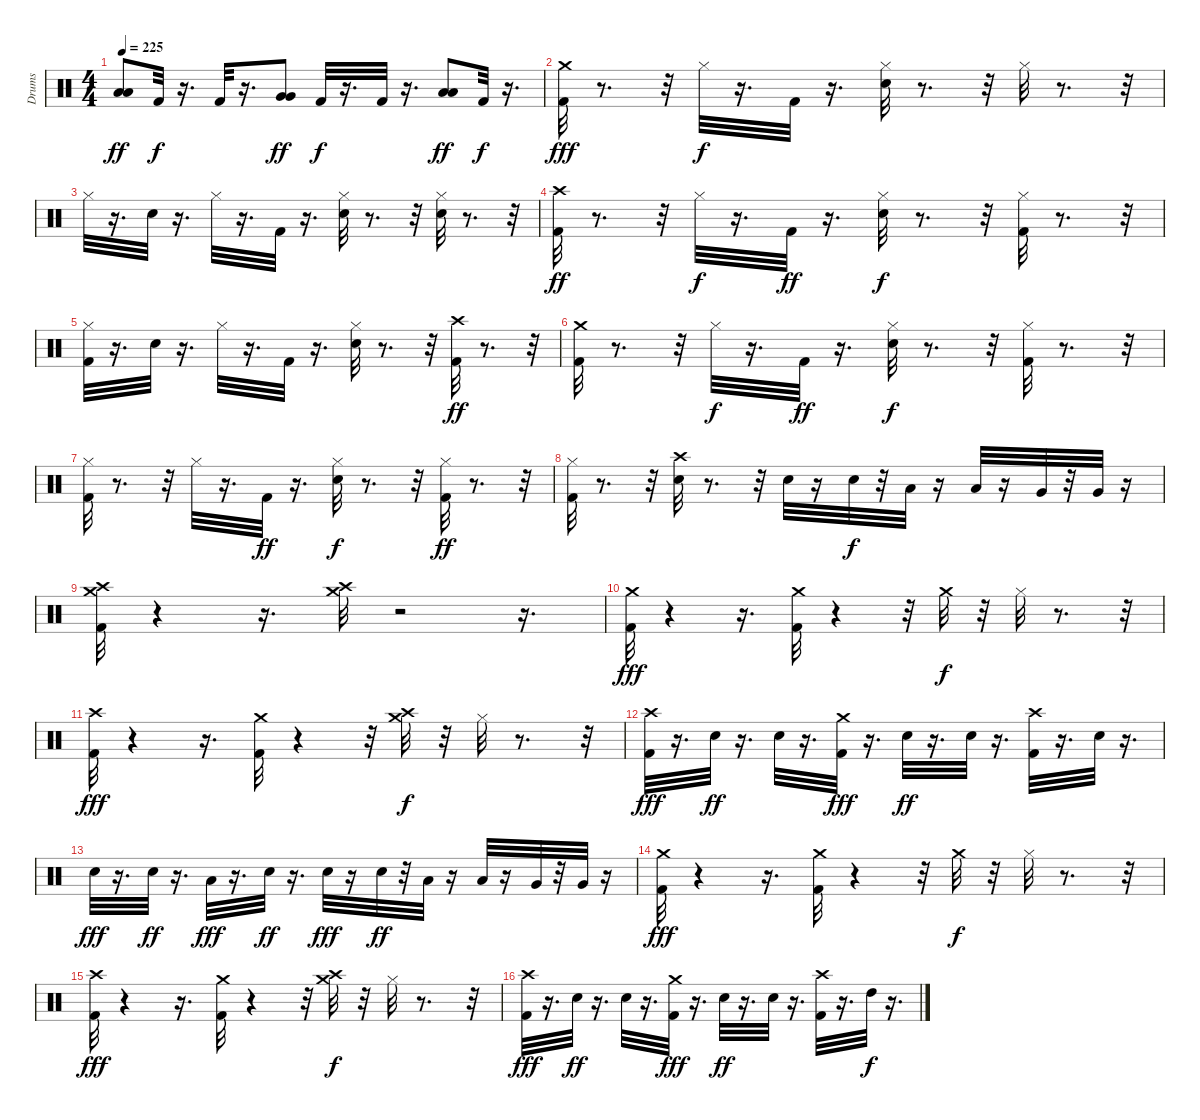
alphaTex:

\track ("Drums" "Drums") {instrument percussion}
\staff {score}
\articulation defaults
\ts (4 4)
\tempo 225
\clef neutral
\ks c
("Low Tom (hit)" "Low Tom (hit)").8{dy ff} "Kick (hit) 2".32{dy f} r.16{d} "Kick (hit) 2".32 r.16{d} ("Very Low Tom (hit)" "Very Low Tom (hit)").8{dy ff} "Kick (hit) 2".32{dy f} r.16{d} "Kick (hit) 2".32 r.16{d} ("Low Floor Tom (hit)" "Low Floor Tom (hit)").8{dy ff} "Kick (hit) 2".32{dy f} r.16{d} |
("Kick (hit) 2" "Crash medium (hit)").32{dy fff} r.8{d} r.32 "Hi-Hat (closed)".32{dy f} r.16{d} "Kick (hit) 2".32 r.16{d} ("Hi-Hat (closed)" "Snare (hit) 2").32 r.8{d} r.32 "Hi-Hat (closed)".32 r.8{d} r.32 |
"Hi-Hat (closed)".32 r.16{d} "Snare (hit) 2".32 r.16{d} "Hi-Hat (closed)".32 r.16{d} "Kick (hit) 2".32 r.16{d} ("Hi-Hat (closed)" "Snare (hit) 2").32 r.8{d} r.32 ("Hi-Hat (closed)" "Snare (hit) 2").32 r.8{d} r.32 |
("Crash high (hit)" "Kick (hit) 2").32{dy ff} r.8{d} r.32 "Hi-Hat (closed)".32{dy f} r.16{d} "Kick (hit) 2".32{dy ff} r.16{d} ("Hi-Hat (closed)" "Snare (hit) 2").32{dy f} r.8{d} r.32 ("Kick (hit) 2" "Hi-Hat (closed)").32 r.8{d} r.32 |
("Kick (hit) 2" "Hi-Hat (closed)").32 r.16{d} "Snare (hit) 2".32 r.16{d} "Hi-Hat (closed)".32 r.16{d} "Kick (hit) 2".32 r.16{d} ("Hi-Hat (closed)" "Snare (hit) 2").32 r.8{d} r.32 ("Kick (hit) 2" "Crash high (hit)").32{dy ff} r.8{d} r.32 |
("Kick (hit) 2" "Crash medium (hit)").32 r.8{d} r.32 "Hi-Hat (closed)".32{dy f} r.16{d} "Kick (hit) 2".32{dy ff} r.16{d} ("Snare (hit) 2" "Hi-Hat (closed)").32{dy f} r.8{d} r.32 ("Kick (hit) 2" "Hi-Hat (closed)").32 r.8{d} r.32 |
("Kick (hit) 2" "Hi-Hat (closed)").32 r.8{d} r.32 "Hi-Hat (closed)".32 r.16{d} "Kick (hit) 2".32{dy ff} r.16{d} ("Snare (hit) 2" "Hi-Hat (closed)").32{dy f} r.8{d} r.32 ("Hi-Hat (closed)" "Kick (hit) 2").32{dy ff} r.8{d} r.32 |
("Hi-Hat (closed)" "Kick (hit) 2").32 r.8{d} r.32 ("Crash high (hit)" "Snare (hit) 2").32 r.8{d} r.32 "Snare (hit) 2".32 r.16 "Snare (hit) 2".32{dy f} r.32 "Low Tom (hit)".32 r.16 "Low Tom (hit)".32 r.16 "Very Low Tom (hit)".32 r.32 "Very Low Tom (hit)".32 r.16 |
("Crash medium (hit)" "Crash high (hit)" "Kick (hit) 2").32 r.4 r.16{d} ("Crash medium (hit)" "Crash high (hit)").32 r.2 r.16{d} |
("Crash medium (hit)" "Kick (hit) 2").32{dy fff} r.4 r.16{d} ("Crash medium (hit)" "Kick (hit) 2").32 r.4 r.32 "Crash medium (hit)".32{dy f} r.32 "Hi-Hat (closed)".32 r.8{d} r.32 |
("Crash high (hit)" "Kick (hit) 2").32{dy fff} r.4 r.16{d} ("Crash medium (hit)" "Kick (hit) 2").32 r.4 r.32 ("Crash high (hit)" "Crash medium (hit)").32{dy f} r.32 "Hi-Hat (closed)".32 r.8{d} r.32 |
("Crash high (hit)" "Kick (hit) 2").32{dy fff} r.16{d} "Snare (hit) 2".32{dy ff} r.16{d} "Snare (hit) 2".32 r.16{d} ("Crash medium (hit)" "Kick (hit) 2").32{dy fff} r.16{d} "Snare (hit) 2".32{dy ff} r.16{d} "Snare (hit) 2".32 r.16{d} ("Kick (hit) 2" "Crash high (hit)").32 r.16{d} "Snare (hit) 2".32 r.16{d} |
"Snare (hit) 2".32{dy fff} r.16{d} "Snare (hit) 2".32{dy ff} r.16{d} "Low Tom (hit)".32{dy fff} r.16{d} "Snare (hit) 2".32{dy ff} r.16{d} "Snare (hit) 2".32{dy fff} r.16 "Snare (hit) 2".32{dy ff} r.32 "Low Tom (hit)".32 r.16 "Low Tom (hit)".32 r.16 "Very Low Tom (hit)".32 r.32 "Very Low Tom (hit)".32 r.16 |
("Crash medium (hit)" "Kick (hit) 2").32{dy fff} r.4 r.16{d} ("Crash medium (hit)" "Kick (hit) 2").32 r.4 r.32 "Crash medium (hit)".32{dy f} r.32 "Hi-Hat (closed)".32 r.8{d} r.32 |
("Crash high (hit)" "Kick (hit) 2").32{dy fff} r.4 r.16{d} ("Crash medium (hit)" "Kick (hit) 2").32 r.4 r.32 ("Crash high (hit)" "Crash medium (hit)").32{dy f} r.32 "Hi-Hat (closed)".32 r.8{d} r.32 |
("Crash high (hit)" "Kick (hit) 2").32{dy fff} r.16{d} "Snare (hit) 2".32{dy ff} r.16{d} "Snare (hit) 2".32 r.16{d} ("Crash medium (hit)" "Kick (hit) 2").32{dy fff} r.16{d} "Snare (hit) 2".32{dy ff} r.16{d} "Snare (hit) 2".32 r.16{d} ("Kick (hit) 2" "Crash high (hit)").32 r.16{d} "High Tom (hit)".32{dy f} r.16{d}
